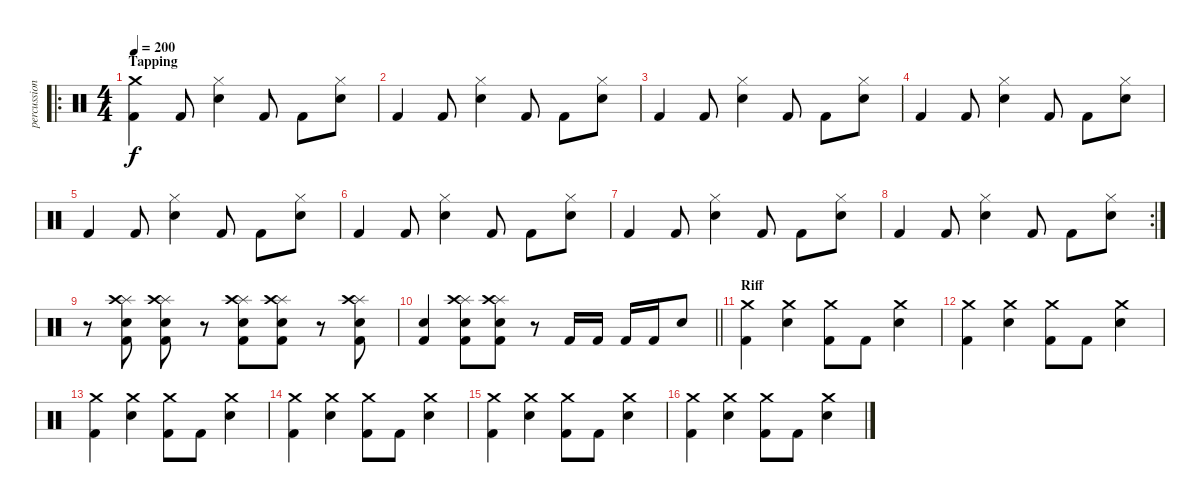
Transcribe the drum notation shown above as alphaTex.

\track ("percussion" "percussion") {instrument percussion}
\staff {score}
\articulation defaults
\ro
\ts (4 4)
\section ("" "Tapping")
\tempo 200
\clef neutral
\ks c
("Kick (hit) 2" "Crash medium (hit)").4{dy f} "Kick (hit) 2".8 ("Electric Snare (hit)" "Hi-Hat (closed)").4 "Kick (hit) 2".8 "Kick (hit) 2".8 ("Electric Snare (hit)" "Hi-Hat (closed)").8 |
"Kick (hit) 2".4 "Kick (hit) 2".8 ("Electric Snare (hit)" "Hi-Hat (closed)").4 "Kick (hit) 2".8 "Kick (hit) 2".8 ("Electric Snare (hit)" "Hi-Hat (closed)").8 |
"Kick (hit) 2".4 "Kick (hit) 2".8 ("Electric Snare (hit)" "Hi-Hat (closed)").4 "Kick (hit) 2".8 "Kick (hit) 2".8 ("Electric Snare (hit)" "Hi-Hat (closed)").8 |
"Kick (hit) 2".4 "Kick (hit) 2".8 ("Electric Snare (hit)" "Hi-Hat (closed)").4 "Kick (hit) 2".8 "Kick (hit) 2".8 ("Electric Snare (hit)" "Hi-Hat (closed)").8 |
"Kick (hit) 2".4 "Kick (hit) 2".8 ("Electric Snare (hit)" "Hi-Hat (closed)").4 "Kick (hit) 2".8 "Kick (hit) 2".8 ("Electric Snare (hit)" "Hi-Hat (closed)").8 |
"Kick (hit) 2".4 "Kick (hit) 2".8 ("Electric Snare (hit)" "Hi-Hat (closed)").4 "Kick (hit) 2".8 "Kick (hit) 2".8 ("Electric Snare (hit)" "Hi-Hat (closed)").8 |
"Kick (hit) 2".4 "Kick (hit) 2".8 ("Electric Snare (hit)" "Hi-Hat (closed)").4 "Kick (hit) 2".8 "Kick (hit) 2".8 ("Electric Snare (hit)" "Hi-Hat (closed)").8 |
\rc 2 "Kick (hit) 2".4 "Kick (hit) 2".8
("Electric Snare (hit)" "Hi-Hat (closed)").4 "Kick (hit) 2".8 "Kick (hit) 2".8 ("Electric Snare (hit)" "Hi-Hat (closed)").8 |
r.8 ("Splash (hit)" "Crash high (hit)" "Electric Snare (hit)" "Kick (hit) 2").8 ("Splash (hit)" "Crash high (hit)" "Electric Snare (hit)" "Kick (hit) 2").8 r.8 ("Splash (hit)" "Crash high (hit)" "Electric Snare (hit)" "Kick (hit) 2").8 ("Splash (hit)" "Crash high (hit)" "Electric Snare (hit)" "Kick (hit) 2").8 r.8 ("Splash (hit)" "Crash high (hit)" "Electric Snare (hit)" "Kick (hit) 2").8 |
\barLineRight lightlight
("Electric Snare (hit)" "Kick (hit) 2").4 ("Splash (hit)" "Crash high (hit)" "Electric Snare (hit)" "Kick (hit) 2").8 ("Splash (hit)" "Crash high (hit)" "Electric Snare (hit)" "Kick (hit) 2").8 r.8 "Kick (hit) 2".16 "Kick (hit) 2".16 "Kick (hit) 2".16 "Kick (hit) 2".16 "Electric Snare (hit)".8 |
\section ("" "Riff")
("Kick (hit) 2" "Crash medium (hit)").4 ("Electric Snare (hit)" "Crash medium (hit)").4 ("Kick (hit) 2" "Crash medium (hit)").8 "Kick (hit) 2".8 ("Electric Snare (hit)" "Crash medium (hit)").4 |
("Kick (hit) 2" "Crash medium (hit)").4 ("Electric Snare (hit)" "Crash medium (hit)").4 ("Kick (hit) 2" "Crash medium (hit)").8 "Kick (hit) 2".8 ("Electric Snare (hit)" "Crash medium (hit)").4 |
("Kick (hit) 2" "Crash medium (hit)").4 ("Electric Snare (hit)" "Crash medium (hit)").4 ("Kick (hit) 2" "Crash medium (hit)").8 "Kick (hit) 2".8 ("Electric Snare (hit)" "Crash medium (hit)").4 |
("Kick (hit) 2" "Crash medium (hit)").4 ("Electric Snare (hit)" "Crash medium (hit)").4 ("Kick (hit) 2" "Crash medium (hit)").8 "Kick (hit) 2".8 ("Electric Snare (hit)" "Crash medium (hit)").4 |
("Kick (hit) 2" "Crash medium (hit)").4 ("Electric Snare (hit)" "Crash medium (hit)").4 ("Kick (hit) 2" "Crash medium (hit)").8 "Kick (hit) 2".8 ("Electric Snare (hit)" "Crash medium (hit)").4 |
("Kick (hit) 2" "Crash medium (hit)").4 ("Electric Snare (hit)" "Crash medium (hit)").4 ("Kick (hit) 2" "Crash medium (hit)").8 "Kick (hit) 2".8 ("Electric Snare (hit)" "Crash medium (hit)").4
